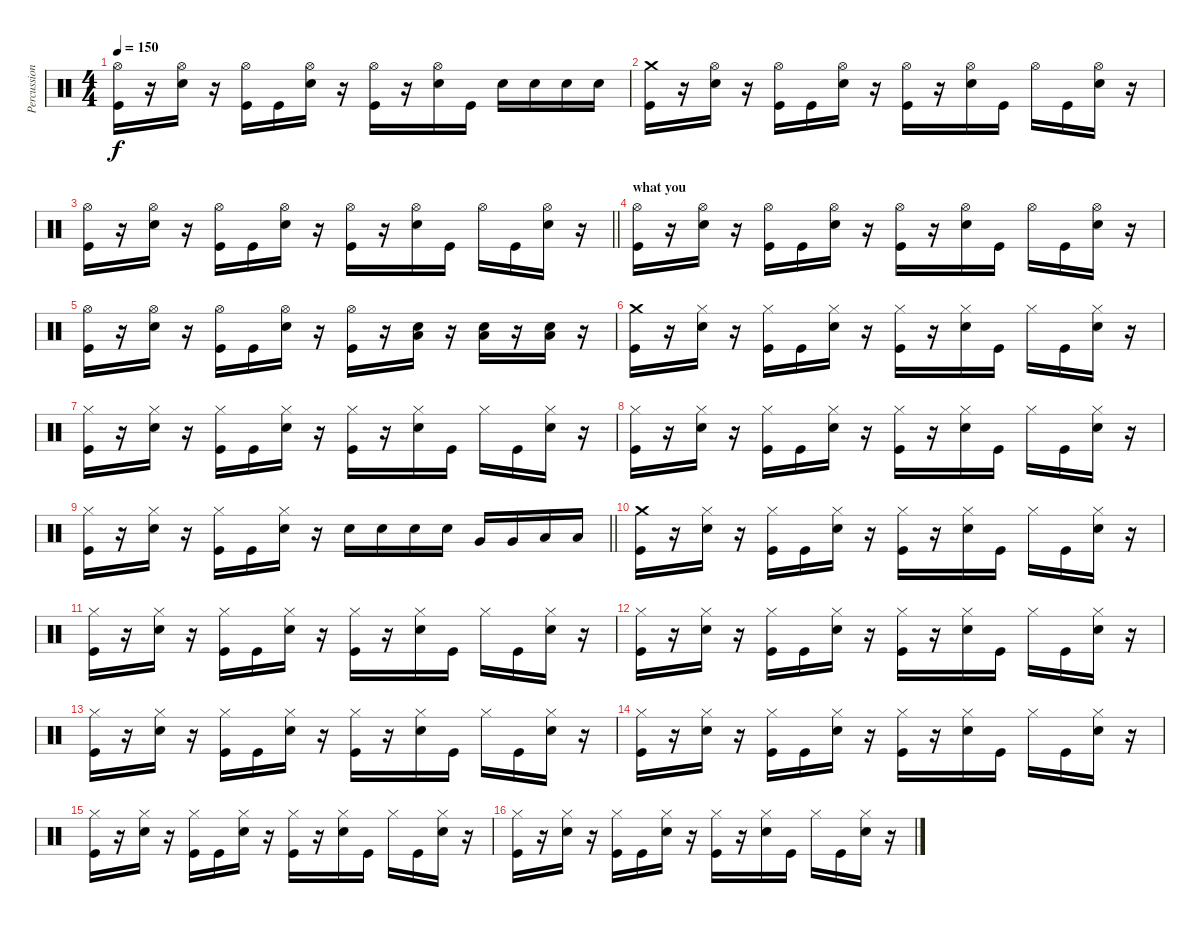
\track ("Percussion" "Percussion") {instrument percussion}
\staff {score}
\articulation defaults
\ts (4 4)
\tempo 150
\clef neutral
\ks c
("Hi-Hat (open)" "Kick (hit)").16{dy f} r.16 ("Hi-Hat (open)" "Snare (hit) 2").16 r.16 ("Hi-Hat (open)" "Kick (hit)").16 "Kick (hit)".16 ("Hi-Hat (open)" "Snare (hit) 2").16 r.16 ("Hi-Hat (open)" "Kick (hit)").16 r.16 ("Hi-Hat (open)" "Snare (hit) 2").16 "Kick (hit)".16 "Snare (hit) 2".16 "Snare (hit) 2".16 "Snare (hit) 2".16 "Snare (hit) 2".16 |
("Crash medium (hit)" "Kick (hit)").16 r.16 ("Hi-Hat (open)" "Snare (hit) 2").16 r.16 ("Hi-Hat (open)" "Kick (hit)").16 "Kick (hit)".16 ("Hi-Hat (open)" "Snare (hit) 2").16 r.16 ("Hi-Hat (open)" "Kick (hit)").16 r.16 ("Hi-Hat (open)" "Snare (hit) 2").16 "Kick (hit)".16 "Hi-Hat (open)".16 "Kick (hit)".16 ("Hi-Hat (open)" "Snare (hit) 2").16 r.16 |
\barLineRight lightlight
("Hi-Hat (open)" "Kick (hit)").16 r.16 ("Hi-Hat (open)" "Snare (hit) 2").16 r.16 ("Hi-Hat (open)" "Kick (hit)").16 "Kick (hit)".16 ("Hi-Hat (open)" "Snare (hit) 2").16 r.16 ("Hi-Hat (open)" "Kick (hit)").16 r.16 ("Hi-Hat (open)" "Snare (hit) 2").16 "Kick (hit)".16 "Hi-Hat (open)".16 "Kick (hit)".16 ("Hi-Hat (open)" "Snare (hit) 2").16 r.16 |
\section ("" "what you")
("Hi-Hat (open)" "Kick (hit)").16 r.16 ("Hi-Hat (open)" "Snare (hit) 2").16 r.16 ("Hi-Hat (open)" "Kick (hit)").16 "Kick (hit)".16 ("Hi-Hat (open)" "Snare (hit) 2").16 r.16 ("Hi-Hat (open)" "Kick (hit)").16 r.16 ("Hi-Hat (open)" "Snare (hit) 2").16 "Kick (hit)".16 "Hi-Hat (open)".16 "Kick (hit)".16 ("Hi-Hat (open)" "Snare (hit) 2").16 r.16 |
("Hi-Hat (open)" "Kick (hit)").16 r.16 ("Hi-Hat (open)" "Snare (hit) 2").16 r.16 ("Hi-Hat (open)" "Kick (hit)").16 "Kick (hit)".16 ("Hi-Hat (open)" "Snare (hit) 2").16 r.16 ("Hi-Hat (open)" "Kick (hit)").16 r.16 ("Low Floor Tom (hit)" "Snare (hit) 2").16 r.16 ("Low Floor Tom (hit)" "Snare (hit) 2").16 r.16 ("Low Floor Tom (hit)" "Snare (hit) 2").16 r.16 |
("Crash medium (hit)" "Kick (hit)").16 r.16 ("Hi-Hat (closed)" "Snare (hit) 2").16 r.16 ("Hi-Hat (closed)" "Kick (hit)").16 "Kick (hit)".16 ("Hi-Hat (closed)" "Snare (hit) 2").16 r.16 ("Hi-Hat (closed)" "Kick (hit)").16 r.16 ("Hi-Hat (closed)" "Snare (hit) 2").16 "Kick (hit)".16 "Hi-Hat (closed)".16 "Kick (hit)".16 ("Hi-Hat (closed)" "Snare (hit) 2").16 r.16 |
("Hi-Hat (closed)" "Kick (hit)").16 r.16 ("Hi-Hat (closed)" "Snare (hit) 2").16 r.16 ("Hi-Hat (closed)" "Kick (hit)").16 "Kick (hit)".16 ("Hi-Hat (closed)" "Snare (hit) 2").16 r.16 ("Hi-Hat (closed)" "Kick (hit)").16 r.16 ("Hi-Hat (closed)" "Snare (hit) 2").16 "Kick (hit)".16 "Hi-Hat (closed)".16 "Kick (hit)".16 ("Hi-Hat (closed)" "Snare (hit) 2").16 r.16 |
("Hi-Hat (closed)" "Kick (hit)").16 r.16 ("Hi-Hat (closed)" "Snare (hit) 2").16 r.16 ("Hi-Hat (closed)" "Kick (hit)").16 "Kick (hit)".16 ("Hi-Hat (closed)" "Snare (hit) 2").16 r.16 ("Hi-Hat (closed)" "Kick (hit)").16 r.16 ("Hi-Hat (closed)" "Snare (hit) 2").16 "Kick (hit)".16 "Hi-Hat (closed)".16 "Kick (hit)".16 ("Hi-Hat (closed)" "Snare (hit) 2").16 r.16 |
\barLineRight lightlight
("Hi-Hat (closed)" "Kick (hit)").16 r.16 ("Hi-Hat (closed)" "Snare (hit) 2").16 r.16 ("Hi-Hat (closed)" "Kick (hit)").16 "Kick (hit)".16 ("Hi-Hat (closed)" "Snare (hit) 2").16 r.16 "Snare (hit) 2".16 "Snare (hit) 2".16 "Snare (hit) 2".16 "Snare (hit) 2".16 "Very Low Tom (hit)".16 "Very Low Tom (hit)".16 "Low Floor Tom (hit)".16 "Low Floor Tom (hit)".16 |
("Crash medium (hit)" "Kick (hit)").16 r.16 ("Hi-Hat (closed)" "Snare (hit) 2").16 r.16 ("Hi-Hat (closed)" "Kick (hit)").16 "Kick (hit)".16 ("Hi-Hat (closed)" "Snare (hit) 2").16 r.16 ("Hi-Hat (closed)" "Kick (hit)").16 r.16 ("Hi-Hat (closed)" "Snare (hit) 2").16 "Kick (hit)".16 "Hi-Hat (closed)".16 "Kick (hit)".16 ("Hi-Hat (closed)" "Snare (hit) 2").16 r.16 |
("Hi-Hat (closed)" "Kick (hit)").16 r.16 ("Hi-Hat (closed)" "Snare (hit) 2").16 r.16 ("Hi-Hat (closed)" "Kick (hit)").16 "Kick (hit)".16 ("Hi-Hat (closed)" "Snare (hit) 2").16 r.16 ("Hi-Hat (closed)" "Kick (hit)").16 r.16 ("Hi-Hat (closed)" "Snare (hit) 2").16 "Kick (hit)".16 "Hi-Hat (closed)".16 "Kick (hit)".16 ("Hi-Hat (closed)" "Snare (hit) 2").16 r.16 |
("Hi-Hat (closed)" "Kick (hit)").16 r.16 ("Hi-Hat (closed)" "Snare (hit) 2").16 r.16 ("Hi-Hat (closed)" "Kick (hit)").16 "Kick (hit)".16 ("Hi-Hat (closed)" "Snare (hit) 2").16 r.16 ("Hi-Hat (closed)" "Kick (hit)").16 r.16 ("Hi-Hat (closed)" "Snare (hit) 2").16 "Kick (hit)".16 "Hi-Hat (closed)".16 "Kick (hit)".16 ("Hi-Hat (closed)" "Snare (hit) 2").16 r.16 |
("Hi-Hat (closed)" "Kick (hit)").16 r.16 ("Hi-Hat (closed)" "Snare (hit) 2").16 r.16 ("Hi-Hat (closed)" "Kick (hit)").16 "Kick (hit)".16 ("Hi-Hat (closed)" "Snare (hit) 2").16 r.16 ("Hi-Hat (closed)" "Kick (hit)").16 r.16 ("Hi-Hat (closed)" "Snare (hit) 2").16 "Kick (hit)".16 "Hi-Hat (closed)".16 "Kick (hit)".16 ("Hi-Hat (closed)" "Snare (hit) 2").16 r.16 |
("Hi-Hat (closed)" "Kick (hit)").16 r.16 ("Hi-Hat (closed)" "Snare (hit) 2").16 r.16 ("Hi-Hat (closed)" "Kick (hit)").16 "Kick (hit)".16 ("Hi-Hat (closed)" "Snare (hit) 2").16 r.16 ("Hi-Hat (closed)" "Kick (hit)").16 r.16 ("Hi-Hat (closed)" "Snare (hit) 2").16 "Kick (hit)".16 "Hi-Hat (closed)".16 "Kick (hit)".16 ("Hi-Hat (closed)" "Snare (hit) 2").16 r.16 |
("Hi-Hat (closed)" "Kick (hit)").16 r.16 ("Hi-Hat (closed)" "Snare (hit) 2").16 r.16 ("Hi-Hat (closed)" "Kick (hit)").16 "Kick (hit)".16 ("Hi-Hat (closed)" "Snare (hit) 2").16 r.16 ("Hi-Hat (closed)" "Kick (hit)").16 r.16 ("Hi-Hat (closed)" "Snare (hit) 2").16 "Kick (hit)".16 "Hi-Hat (closed)".16 "Kick (hit)".16 ("Hi-Hat (closed)" "Snare (hit) 2").16 r.16 |
("Hi-Hat (closed)" "Kick (hit)").16 r.16 ("Hi-Hat (closed)" "Snare (hit) 2").16 r.16 ("Hi-Hat (closed)" "Kick (hit)").16 "Kick (hit)".16 ("Hi-Hat (closed)" "Snare (hit) 2").16 r.16 ("Hi-Hat (closed)" "Kick (hit)").16 r.16 ("Hi-Hat (closed)" "Snare (hit) 2").16 "Kick (hit)".16 "Hi-Hat (closed)".16 "Kick (hit)".16 ("Hi-Hat (closed)" "Snare (hit) 2").16 r.16
